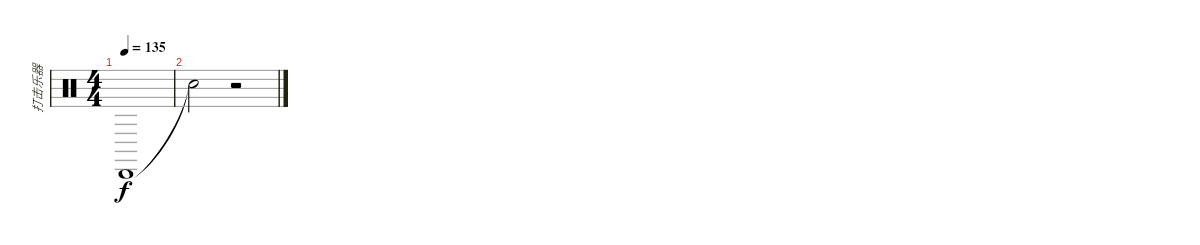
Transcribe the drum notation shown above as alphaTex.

\track ("打击乐器" "打击乐器") {instrument percussion}
\staff {score}
\articulation defaults
\ts (4 4)
\tempo 135
\clef neutral
\ks c "Cabasa (hit)".1{dy f}
|
"Snare (hit)"{t}.2 r.2
